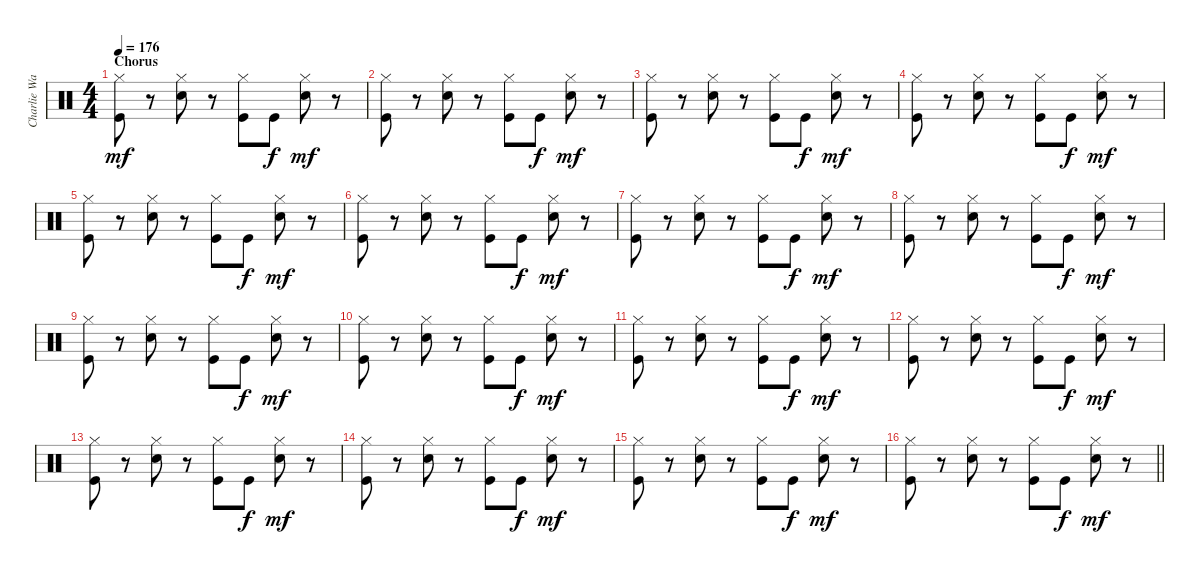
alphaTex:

\track ("Charlie Watts" "Charlie Wa") {instrument percussion}
\staff {score}
\articulation defaults
\ts (4 4)
\section ("" "Chorus")
\tempo 176
\clef neutral
\ks c
("Hi-Hat (closed)" "Kick (hit)").8{dy mf} r.8 ("Hi-Hat (closed)" "Snare (hit) 2").8 r.8 ("Hi-Hat (closed)" "Kick (hit)").8 "Kick (hit)".8{dy f} ("Hi-Hat (closed)" "Snare (hit) 2").8{dy mf} r.8 |
("Hi-Hat (closed)" "Kick (hit)").8 r.8 ("Hi-Hat (closed)" "Snare (hit) 2").8 r.8 ("Hi-Hat (closed)" "Kick (hit)").8 "Kick (hit)".8{dy f} ("Hi-Hat (closed)" "Snare (hit) 2").8{dy mf} r.8 |
("Hi-Hat (closed)" "Kick (hit)").8 r.8 ("Hi-Hat (closed)" "Snare (hit) 2").8 r.8 ("Hi-Hat (closed)" "Kick (hit)").8 "Kick (hit)".8{dy f} ("Hi-Hat (closed)" "Snare (hit) 2").8{dy mf} r.8 |
("Hi-Hat (closed)" "Kick (hit)").8 r.8 ("Hi-Hat (closed)" "Snare (hit) 2").8 r.8 ("Hi-Hat (closed)" "Kick (hit)").8 "Kick (hit)".8{dy f} ("Hi-Hat (closed)" "Snare (hit) 2").8{dy mf} r.8 |
("Hi-Hat (closed)" "Kick (hit)").8 r.8 ("Hi-Hat (closed)" "Snare (hit) 2").8 r.8 ("Hi-Hat (closed)" "Kick (hit)").8 "Kick (hit)".8{dy f} ("Hi-Hat (closed)" "Snare (hit) 2").8{dy mf} r.8 |
("Hi-Hat (closed)" "Kick (hit)").8 r.8 ("Hi-Hat (closed)" "Snare (hit) 2").8 r.8 ("Hi-Hat (closed)" "Kick (hit)").8 "Kick (hit)".8{dy f} ("Hi-Hat (closed)" "Snare (hit) 2").8{dy mf} r.8 |
("Hi-Hat (closed)" "Kick (hit)").8 r.8 ("Hi-Hat (closed)" "Snare (hit) 2").8 r.8 ("Hi-Hat (closed)" "Kick (hit)").8 "Kick (hit)".8{dy f} ("Hi-Hat (closed)" "Snare (hit) 2").8{dy mf} r.8 |
("Hi-Hat (closed)" "Kick (hit)").8 r.8 ("Hi-Hat (closed)" "Snare (hit) 2").8 r.8 ("Hi-Hat (closed)" "Kick (hit)").8 "Kick (hit)".8{dy f} ("Hi-Hat (closed)" "Snare (hit) 2").8{dy mf} r.8 |
("Hi-Hat (closed)" "Kick (hit)").8 r.8 ("Hi-Hat (closed)" "Snare (hit) 2").8 r.8 ("Hi-Hat (closed)" "Kick (hit)").8 "Kick (hit)".8{dy f} ("Hi-Hat (closed)" "Snare (hit) 2").8{dy mf} r.8 |
("Hi-Hat (closed)" "Kick (hit)").8 r.8 ("Hi-Hat (closed)" "Snare (hit) 2").8 r.8 ("Hi-Hat (closed)" "Kick (hit)").8 "Kick (hit)".8{dy f} ("Hi-Hat (closed)" "Snare (hit) 2").8{dy mf} r.8 |
("Hi-Hat (closed)" "Kick (hit)").8 r.8 ("Hi-Hat (closed)" "Snare (hit) 2").8 r.8 ("Hi-Hat (closed)" "Kick (hit)").8 "Kick (hit)".8{dy f} ("Hi-Hat (closed)" "Snare (hit) 2").8{dy mf} r.8 |
("Hi-Hat (closed)" "Kick (hit)").8 r.8 ("Hi-Hat (closed)" "Snare (hit) 2").8 r.8 ("Hi-Hat (closed)" "Kick (hit)").8 "Kick (hit)".8{dy f} ("Hi-Hat (closed)" "Snare (hit) 2").8{dy mf} r.8 |
("Hi-Hat (closed)" "Kick (hit)").8 r.8 ("Hi-Hat (closed)" "Snare (hit) 2").8 r.8 ("Hi-Hat (closed)" "Kick (hit)").8 "Kick (hit)".8{dy f} ("Hi-Hat (closed)" "Snare (hit) 2").8{dy mf} r.8 |
("Hi-Hat (closed)" "Kick (hit)").8 r.8 ("Hi-Hat (closed)" "Snare (hit) 2").8 r.8 ("Hi-Hat (closed)" "Kick (hit)").8 "Kick (hit)".8{dy f} ("Hi-Hat (closed)" "Snare (hit) 2").8{dy mf} r.8 |
("Hi-Hat (closed)" "Kick (hit)").8 r.8 ("Hi-Hat (closed)" "Snare (hit) 2").8 r.8 ("Hi-Hat (closed)" "Kick (hit)").8 "Kick (hit)".8{dy f} ("Hi-Hat (closed)" "Snare (hit) 2").8{dy mf} r.8 |
\barLineRight lightlight
("Hi-Hat (closed)" "Kick (hit)").8 r.8 ("Hi-Hat (closed)" "Snare (hit) 2").8 r.8 ("Hi-Hat (closed)" "Kick (hit)").8 "Kick (hit)".8{dy f} ("Hi-Hat (closed)" "Snare (hit) 2").8{dy mf} r.8
